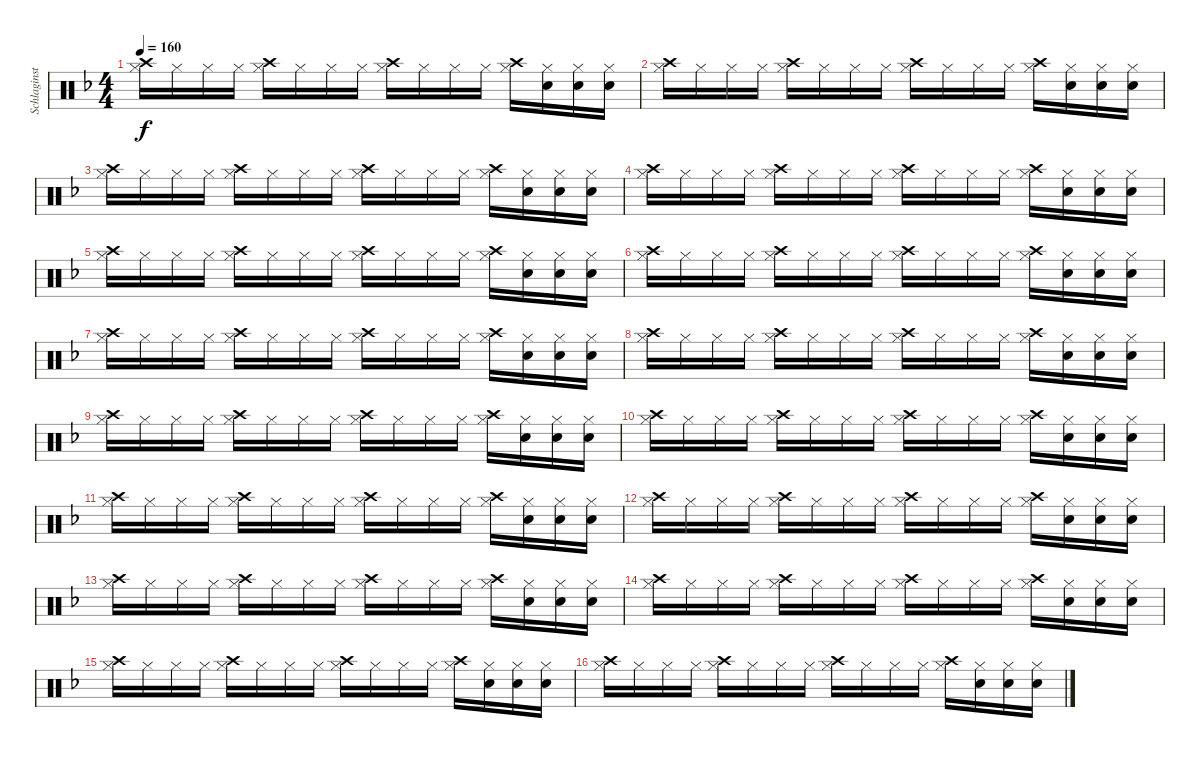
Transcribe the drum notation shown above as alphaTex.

\track ("Schlaginstrumente - Auswahl" "Schlaginst") {instrument percussion}
\staff {score}
\articulation defaults
\ts (4 4)
\tempo 160
\clef neutral
\ks dminor
("Hi-Hat (closed)" "Crash high (hit)").16{dy f} "Hi-Hat (closed)".16 "Hi-Hat (closed)".16 "Hi-Hat (closed)".16 ("Hi-Hat (closed)" "Crash high (hit)").16 "Hi-Hat (closed)".16 "Hi-Hat (closed)".16 "Hi-Hat (closed)".16 ("Hi-Hat (closed)" "Crash high (hit)").16 "Hi-Hat (closed)".16 "Hi-Hat (closed)".16 "Hi-Hat (closed)".16 ("Hi-Hat (closed)" "Crash high (hit)").16 ("Hi-Hat (closed)" "Electric Snare (hit)").16 ("Hi-Hat (closed)" "Electric Snare (hit)").16 ("Hi-Hat (closed)" "Electric Snare (hit)").16 |
("Hi-Hat (closed)" "Crash high (hit)").16 "Hi-Hat (closed)".16 "Hi-Hat (closed)".16 "Hi-Hat (closed)".16 ("Hi-Hat (closed)" "Crash high (hit)").16 "Hi-Hat (closed)".16 "Hi-Hat (closed)".16 "Hi-Hat (closed)".16 ("Hi-Hat (closed)" "Crash high (hit)").16 "Hi-Hat (closed)".16 "Hi-Hat (closed)".16 "Hi-Hat (closed)".16 ("Hi-Hat (closed)" "Crash high (hit)").16 ("Hi-Hat (closed)" "Electric Snare (hit)").16 ("Hi-Hat (closed)" "Electric Snare (hit)").16 ("Hi-Hat (closed)" "Electric Snare (hit)").16 |
("Hi-Hat (closed)" "Crash high (hit)").16 "Hi-Hat (closed)".16 "Hi-Hat (closed)".16 "Hi-Hat (closed)".16 ("Hi-Hat (closed)" "Crash high (hit)").16 "Hi-Hat (closed)".16 "Hi-Hat (closed)".16 "Hi-Hat (closed)".16 ("Hi-Hat (closed)" "Crash high (hit)").16 "Hi-Hat (closed)".16 "Hi-Hat (closed)".16 "Hi-Hat (closed)".16 ("Hi-Hat (closed)" "Crash high (hit)").16 ("Hi-Hat (closed)" "Electric Snare (hit)").16 ("Hi-Hat (closed)" "Electric Snare (hit)").16 ("Hi-Hat (closed)" "Electric Snare (hit)").16 |
("Hi-Hat (closed)" "Crash high (hit)").16 "Hi-Hat (closed)".16 "Hi-Hat (closed)".16 "Hi-Hat (closed)".16 ("Hi-Hat (closed)" "Crash high (hit)").16 "Hi-Hat (closed)".16 "Hi-Hat (closed)".16 "Hi-Hat (closed)".16 ("Hi-Hat (closed)" "Crash high (hit)").16 "Hi-Hat (closed)".16 "Hi-Hat (closed)".16 "Hi-Hat (closed)".16 ("Hi-Hat (closed)" "Crash high (hit)").16 ("Hi-Hat (closed)" "Electric Snare (hit)").16 ("Hi-Hat (closed)" "Electric Snare (hit)").16 ("Hi-Hat (closed)" "Electric Snare (hit)").16 |
("Hi-Hat (closed)" "Crash high (hit)").16 "Hi-Hat (closed)".16 "Hi-Hat (closed)".16 "Hi-Hat (closed)".16 ("Hi-Hat (closed)" "Crash high (hit)").16 "Hi-Hat (closed)".16 "Hi-Hat (closed)".16 "Hi-Hat (closed)".16 ("Hi-Hat (closed)" "Crash high (hit)").16 "Hi-Hat (closed)".16 "Hi-Hat (closed)".16 "Hi-Hat (closed)".16 ("Hi-Hat (closed)" "Crash high (hit)").16 ("Hi-Hat (closed)" "Electric Snare (hit)").16 ("Hi-Hat (closed)" "Electric Snare (hit)").16 ("Hi-Hat (closed)" "Electric Snare (hit)").16 |
("Hi-Hat (closed)" "Crash high (hit)").16 "Hi-Hat (closed)".16 "Hi-Hat (closed)".16 "Hi-Hat (closed)".16 ("Hi-Hat (closed)" "Crash high (hit)").16 "Hi-Hat (closed)".16 "Hi-Hat (closed)".16 "Hi-Hat (closed)".16 ("Hi-Hat (closed)" "Crash high (hit)").16 "Hi-Hat (closed)".16 "Hi-Hat (closed)".16 "Hi-Hat (closed)".16 ("Hi-Hat (closed)" "Crash high (hit)").16 ("Hi-Hat (closed)" "Electric Snare (hit)").16 ("Hi-Hat (closed)" "Electric Snare (hit)").16 ("Hi-Hat (closed)" "Electric Snare (hit)").16 |
("Hi-Hat (closed)" "Crash high (hit)").16 "Hi-Hat (closed)".16 "Hi-Hat (closed)".16 "Hi-Hat (closed)".16 ("Hi-Hat (closed)" "Crash high (hit)").16 "Hi-Hat (closed)".16 "Hi-Hat (closed)".16 "Hi-Hat (closed)".16 ("Hi-Hat (closed)" "Crash high (hit)").16 "Hi-Hat (closed)".16 "Hi-Hat (closed)".16 "Hi-Hat (closed)".16 ("Hi-Hat (closed)" "Crash high (hit)").16 ("Hi-Hat (closed)" "Electric Snare (hit)").16 ("Hi-Hat (closed)" "Electric Snare (hit)").16 ("Hi-Hat (closed)" "Electric Snare (hit)").16 |
("Hi-Hat (closed)" "Crash high (hit)").16 "Hi-Hat (closed)".16 "Hi-Hat (closed)".16 "Hi-Hat (closed)".16 ("Hi-Hat (closed)" "Crash high (hit)").16 "Hi-Hat (closed)".16 "Hi-Hat (closed)".16 "Hi-Hat (closed)".16 ("Hi-Hat (closed)" "Crash high (hit)").16 "Hi-Hat (closed)".16 "Hi-Hat (closed)".16 "Hi-Hat (closed)".16 ("Hi-Hat (closed)" "Crash high (hit)").16 ("Hi-Hat (closed)" "Electric Snare (hit)").16 ("Hi-Hat (closed)" "Electric Snare (hit)").16 ("Hi-Hat (closed)" "Electric Snare (hit)").16 |
("Hi-Hat (closed)" "Crash high (hit)").16 "Hi-Hat (closed)".16 "Hi-Hat (closed)".16 "Hi-Hat (closed)".16 ("Hi-Hat (closed)" "Crash high (hit)").16 "Hi-Hat (closed)".16 "Hi-Hat (closed)".16 "Hi-Hat (closed)".16 ("Hi-Hat (closed)" "Crash high (hit)").16 "Hi-Hat (closed)".16 "Hi-Hat (closed)".16 "Hi-Hat (closed)".16 ("Hi-Hat (closed)" "Crash high (hit)").16 ("Hi-Hat (closed)" "Electric Snare (hit)").16 ("Hi-Hat (closed)" "Electric Snare (hit)").16 ("Hi-Hat (closed)" "Electric Snare (hit)").16 |
("Hi-Hat (closed)" "Crash high (hit)").16 "Hi-Hat (closed)".16 "Hi-Hat (closed)".16 "Hi-Hat (closed)".16 ("Hi-Hat (closed)" "Crash high (hit)").16 "Hi-Hat (closed)".16 "Hi-Hat (closed)".16 "Hi-Hat (closed)".16 ("Hi-Hat (closed)" "Crash high (hit)").16 "Hi-Hat (closed)".16 "Hi-Hat (closed)".16 "Hi-Hat (closed)".16 ("Hi-Hat (closed)" "Crash high (hit)").16 ("Hi-Hat (closed)" "Electric Snare (hit)").16 ("Hi-Hat (closed)" "Electric Snare (hit)").16 ("Hi-Hat (closed)" "Electric Snare (hit)").16 |
("Hi-Hat (closed)" "Crash high (hit)").16 "Hi-Hat (closed)".16 "Hi-Hat (closed)".16 "Hi-Hat (closed)".16 ("Hi-Hat (closed)" "Crash high (hit)").16 "Hi-Hat (closed)".16 "Hi-Hat (closed)".16 "Hi-Hat (closed)".16 ("Hi-Hat (closed)" "Crash high (hit)").16 "Hi-Hat (closed)".16 "Hi-Hat (closed)".16 "Hi-Hat (closed)".16 ("Hi-Hat (closed)" "Crash high (hit)").16 ("Hi-Hat (closed)" "Electric Snare (hit)").16 ("Hi-Hat (closed)" "Electric Snare (hit)").16 ("Hi-Hat (closed)" "Electric Snare (hit)").16 |
("Hi-Hat (closed)" "Crash high (hit)").16 "Hi-Hat (closed)".16 "Hi-Hat (closed)".16 "Hi-Hat (closed)".16 ("Hi-Hat (closed)" "Crash high (hit)").16 "Hi-Hat (closed)".16 "Hi-Hat (closed)".16 "Hi-Hat (closed)".16 ("Hi-Hat (closed)" "Crash high (hit)").16 "Hi-Hat (closed)".16 "Hi-Hat (closed)".16 "Hi-Hat (closed)".16 ("Hi-Hat (closed)" "Crash high (hit)").16 ("Hi-Hat (closed)" "Electric Snare (hit)").16 ("Hi-Hat (closed)" "Electric Snare (hit)").16 ("Hi-Hat (closed)" "Electric Snare (hit)").16 |
("Hi-Hat (closed)" "Crash high (hit)").16 "Hi-Hat (closed)".16 "Hi-Hat (closed)".16 "Hi-Hat (closed)".16 ("Hi-Hat (closed)" "Crash high (hit)").16 "Hi-Hat (closed)".16 "Hi-Hat (closed)".16 "Hi-Hat (closed)".16 ("Hi-Hat (closed)" "Crash high (hit)").16 "Hi-Hat (closed)".16 "Hi-Hat (closed)".16 "Hi-Hat (closed)".16 ("Hi-Hat (closed)" "Crash high (hit)").16 ("Hi-Hat (closed)" "Electric Snare (hit)").16 ("Hi-Hat (closed)" "Electric Snare (hit)").16 ("Hi-Hat (closed)" "Electric Snare (hit)").16 |
("Hi-Hat (closed)" "Crash high (hit)").16 "Hi-Hat (closed)".16 "Hi-Hat (closed)".16 "Hi-Hat (closed)".16 ("Hi-Hat (closed)" "Crash high (hit)").16 "Hi-Hat (closed)".16 "Hi-Hat (closed)".16 "Hi-Hat (closed)".16 ("Hi-Hat (closed)" "Crash high (hit)").16 "Hi-Hat (closed)".16 "Hi-Hat (closed)".16 "Hi-Hat (closed)".16 ("Hi-Hat (closed)" "Crash high (hit)").16 ("Hi-Hat (closed)" "Electric Snare (hit)").16 ("Hi-Hat (closed)" "Electric Snare (hit)").16 ("Hi-Hat (closed)" "Electric Snare (hit)").16 |
("Hi-Hat (closed)" "Crash high (hit)").16 "Hi-Hat (closed)".16 "Hi-Hat (closed)".16 "Hi-Hat (closed)".16 ("Hi-Hat (closed)" "Crash high (hit)").16 "Hi-Hat (closed)".16 "Hi-Hat (closed)".16 "Hi-Hat (closed)".16 ("Hi-Hat (closed)" "Crash high (hit)").16 "Hi-Hat (closed)".16 "Hi-Hat (closed)".16 "Hi-Hat (closed)".16 ("Hi-Hat (closed)" "Crash high (hit)").16 ("Hi-Hat (closed)" "Electric Snare (hit)").16 ("Hi-Hat (closed)" "Electric Snare (hit)").16 ("Hi-Hat (closed)" "Electric Snare (hit)").16 |
("Hi-Hat (closed)" "Crash high (hit)").16 "Hi-Hat (closed)".16 "Hi-Hat (closed)".16 "Hi-Hat (closed)".16 ("Hi-Hat (closed)" "Crash high (hit)").16 "Hi-Hat (closed)".16 "Hi-Hat (closed)".16 "Hi-Hat (closed)".16 ("Hi-Hat (closed)" "Crash high (hit)").16 "Hi-Hat (closed)".16 "Hi-Hat (closed)".16 "Hi-Hat (closed)".16 ("Hi-Hat (closed)" "Crash high (hit)").16 ("Hi-Hat (closed)" "Electric Snare (hit)").16 ("Hi-Hat (closed)" "Electric Snare (hit)").16 ("Hi-Hat (closed)" "Electric Snare (hit)").16
